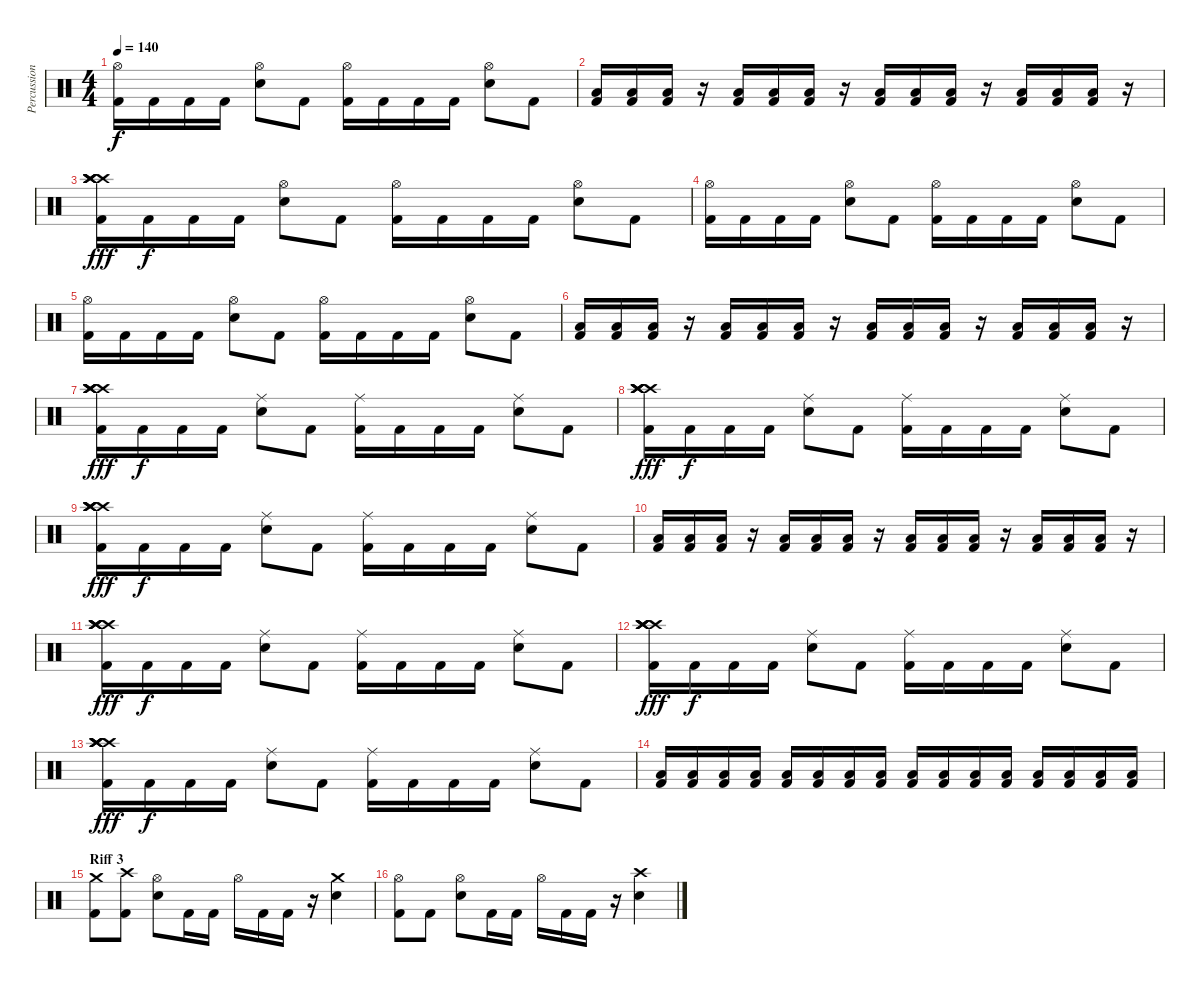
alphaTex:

\track ("Percussions" "Percussion") {instrument percussion}
\staff {score}
\articulation defaults
\ts (4 4)
\tempo 140
\clef neutral
\ks c
("Hi-Hat (open)" "Kick (hit) 2").16{dy f} "Kick (hit) 2".16 "Kick (hit) 2".16 "Kick (hit) 2".16 ("Hi-Hat (open)" "Snare (hit) 2").8 "Kick (hit) 2".8 ("Hi-Hat (open)" "Kick (hit) 2").16 "Kick (hit) 2".16 "Kick (hit) 2".16 "Kick (hit) 2".16 ("Hi-Hat (open)" "Snare (hit) 2").8 "Kick (hit) 2".8 |
("Low Tom (hit)" "Kick (hit) 2").16 ("Low Tom (hit)" "Kick (hit) 2").16 ("Low Tom (hit)" "Kick (hit) 2").16 r.16 ("Low Tom (hit)" "Kick (hit) 2").16 ("Low Tom (hit)" "Kick (hit) 2").16 ("Low Tom (hit)" "Kick (hit) 2").16 r.16 ("Low Tom (hit)" "Kick (hit) 2").16 ("Low Tom (hit)" "Kick (hit) 2").16 ("Low Tom (hit)" "Kick (hit) 2").16 r.16 ("Low Tom (hit)" "Kick (hit) 2").16 ("Low Tom (hit)" "Kick (hit) 2").16 ("Low Tom (hit)" "Kick (hit) 2").16 r.16 |
("Crash high (hit)" "Crash high (hit)" "Crash high (hit)" "Crash high (hit)" "Crash high (hit)" "Kick (hit) 2").16{dy fff} "Kick (hit) 2".16{dy f} "Kick (hit) 2".16 "Kick (hit) 2".16 ("Hi-Hat (open)" "Snare (hit) 2").8 "Kick (hit) 2".8 ("Hi-Hat (open)" "Kick (hit) 2").16 "Kick (hit) 2".16 "Kick (hit) 2".16 "Kick (hit) 2".16 ("Hi-Hat (open)" "Snare (hit) 2").8 "Kick (hit) 2".8 |
("Hi-Hat (open)" "Kick (hit) 2").16 "Kick (hit) 2".16 "Kick (hit) 2".16 "Kick (hit) 2".16 ("Hi-Hat (open)" "Snare (hit) 2").8 "Kick (hit) 2".8 ("Hi-Hat (open)" "Kick (hit) 2").16 "Kick (hit) 2".16 "Kick (hit) 2".16 "Kick (hit) 2".16 ("Hi-Hat (open)" "Snare (hit) 2").8 "Kick (hit) 2".8 |
("Hi-Hat (open)" "Kick (hit) 2").16 "Kick (hit) 2".16 "Kick (hit) 2".16 "Kick (hit) 2".16 ("Hi-Hat (open)" "Snare (hit) 2").8 "Kick (hit) 2".8 ("Hi-Hat (open)" "Kick (hit) 2").16 "Kick (hit) 2".16 "Kick (hit) 2".16 "Kick (hit) 2".16 ("Hi-Hat (open)" "Snare (hit) 2").8 "Kick (hit) 2".8 |
("Low Tom (hit)" "Kick (hit) 2").16 ("Low Tom (hit)" "Kick (hit) 2").16 ("Low Tom (hit)" "Kick (hit) 2").16 r.16 ("Low Tom (hit)" "Kick (hit) 2").16 ("Low Tom (hit)" "Kick (hit) 2").16 ("Low Tom (hit)" "Kick (hit) 2").16 r.16 ("Low Tom (hit)" "Kick (hit) 2").16 ("Low Tom (hit)" "Kick (hit) 2").16 ("Low Tom (hit)" "Kick (hit) 2").16 r.16 ("Low Tom (hit)" "Kick (hit) 2").16 ("Low Tom (hit)" "Kick (hit) 2").16 ("Low Tom (hit)" "Kick (hit) 2").16 r.16 |
("Crash high (hit)" "Crash high (hit)" "Crash high (hit)" "Crash high (hit)" "Crash high (hit)" "Kick (hit) 2").16{dy fff} "Kick (hit) 2".16{dy f} "Kick (hit) 2".16 "Kick (hit) 2".16 ("Ride (middle)" "Snare (hit) 2").8 "Kick (hit) 2".8 ("Ride (middle)" "Kick (hit) 2").16 "Kick (hit) 2".16 "Kick (hit) 2".16 "Kick (hit) 2".16 ("Ride (middle)" "Snare (hit) 2").8 "Kick (hit) 2".8 |
("Crash high (hit)" "Crash high (hit)" "Crash high (hit)" "Crash high (hit)" "Crash high (hit)" "Kick (hit) 2").16{dy fff} "Kick (hit) 2".16{dy f} "Kick (hit) 2".16 "Kick (hit) 2".16 ("Ride (middle)" "Snare (hit) 2").8 "Kick (hit) 2".8 ("Ride (middle)" "Kick (hit) 2").16 "Kick (hit) 2".16 "Kick (hit) 2".16 "Kick (hit) 2".16 ("Ride (middle)" "Snare (hit) 2").8 "Kick (hit) 2".8 |
("Crash high (hit)" "Crash high (hit)" "Crash high (hit)" "Crash high (hit)" "Crash high (hit)" "Kick (hit) 2").16{dy fff} "Kick (hit) 2".16{dy f} "Kick (hit) 2".16 "Kick (hit) 2".16 ("Ride (middle)" "Snare (hit) 2").8 "Kick (hit) 2".8 ("Ride (middle)" "Kick (hit) 2").16 "Kick (hit) 2".16 "Kick (hit) 2".16 "Kick (hit) 2".16 ("Ride (middle)" "Snare (hit) 2").8 "Kick (hit) 2".8 |
("Low Tom (hit)" "Kick (hit) 2").16 ("Low Tom (hit)" "Kick (hit) 2").16 ("Low Tom (hit)" "Kick (hit) 2").16 r.16 ("Low Tom (hit)" "Kick (hit) 2").16 ("Low Tom (hit)" "Kick (hit) 2").16 ("Low Tom (hit)" "Kick (hit) 2").16 r.16 ("Low Tom (hit)" "Kick (hit) 2").16 ("Low Tom (hit)" "Kick (hit) 2").16 ("Low Tom (hit)" "Kick (hit) 2").16 r.16 ("Low Tom (hit)" "Kick (hit) 2").16 ("Low Tom (hit)" "Kick (hit) 2").16 ("Low Tom (hit)" "Kick (hit) 2").16 r.16 |
("Crash high (hit)" "Crash high (hit)" "Crash high (hit)" "Crash high (hit)" "Crash high (hit)" "Kick (hit) 2").16{dy fff} "Kick (hit) 2".16{dy f} "Kick (hit) 2".16 "Kick (hit) 2".16 ("Ride (middle)" "Snare (hit) 2").8 "Kick (hit) 2".8 ("Ride (middle)" "Kick (hit) 2").16 "Kick (hit) 2".16 "Kick (hit) 2".16 "Kick (hit) 2".16 ("Ride (middle)" "Snare (hit) 2").8 "Kick (hit) 2".8 |
("Crash high (hit)" "Crash high (hit)" "Crash high (hit)" "Crash high (hit)" "Crash high (hit)" "Kick (hit) 2").16{dy fff} "Kick (hit) 2".16{dy f} "Kick (hit) 2".16 "Kick (hit) 2".16 ("Ride (middle)" "Snare (hit) 2").8 "Kick (hit) 2".8 ("Ride (middle)" "Kick (hit) 2").16 "Kick (hit) 2".16 "Kick (hit) 2".16 "Kick (hit) 2".16 ("Ride (middle)" "Snare (hit) 2").8 "Kick (hit) 2".8 |
("Crash high (hit)" "Crash high (hit)" "Crash high (hit)" "Crash high (hit)" "Crash high (hit)" "Kick (hit) 2").16{dy fff} "Kick (hit) 2".16{dy f} "Kick (hit) 2".16 "Kick (hit) 2".16 ("Ride (middle)" "Snare (hit) 2").8 "Kick (hit) 2".8 ("Ride (middle)" "Kick (hit) 2").16 "Kick (hit) 2".16 "Kick (hit) 2".16 "Kick (hit) 2".16 ("Ride (middle)" "Snare (hit) 2").8 "Kick (hit) 2".8 |
("Low Tom (hit)" "Kick (hit) 2").16 ("Low Tom (hit)" "Kick (hit) 2").16 ("Low Tom (hit)" "Kick (hit) 2").16 ("Low Tom (hit)" "Kick (hit) 2").16 ("Low Tom (hit)" "Kick (hit) 2").16 ("Low Tom (hit)" "Kick (hit) 2").16 ("Low Tom (hit)" "Kick (hit) 2").16 ("Low Tom (hit)" "Kick (hit) 2").16 ("Low Tom (hit)" "Kick (hit) 2").16 ("Low Tom (hit)" "Kick (hit) 2").16 ("Low Tom (hit)" "Kick (hit) 2").16 ("Low Tom (hit)" "Kick (hit) 2").16 ("Low Tom (hit)" "Kick (hit) 2").16 ("Low Tom (hit)" "Kick (hit) 2").16 ("Low Tom (hit)" "Kick (hit) 2").16 ("Low Tom (hit)" "Kick (hit) 2").16 |
\section ("" "Riff 3")
("Crash medium (hit)" "Kick (hit) 2").8 ("Crash high (hit)" "Kick (hit) 2").8 ("Hi-Hat (open)" "Snare (hit) 2").8 "Kick (hit) 2".16 "Kick (hit) 2".16 "Hi-Hat (open)".16 "Kick (hit) 2".16 "Kick (hit) 2".16 r.16 ("Crash medium (hit)" "Snare (hit) 2").4 |
("Hi-Hat (open)" "Kick (hit) 2").8 "Kick (hit) 2".8 ("Hi-Hat (open)" "Snare (hit) 2").8 "Kick (hit) 2".16 "Kick (hit) 2".16 "Hi-Hat (open)".16 "Kick (hit) 2".16 "Kick (hit) 2".16 r.16 ("Crash high (hit)" "Snare (hit) 2").4
